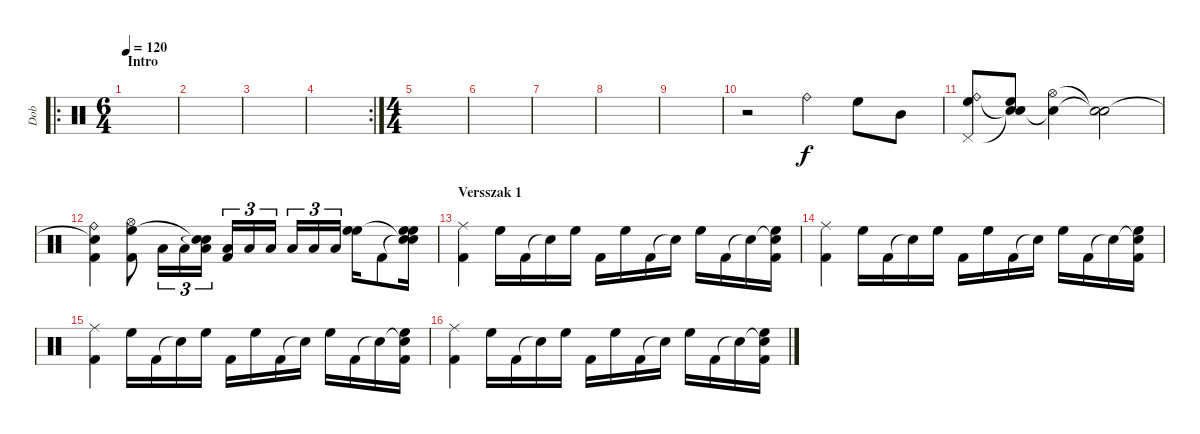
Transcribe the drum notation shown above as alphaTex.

\track ("Dob" "Dob") {instrument percussion}
\staff {score}
\articulation defaults
\ro
\ts (6 4)
\section ("" "Intro")
\tempo 120
\clef neutral
\ks c
|
|
|
\rc 2
|
\ts (4 4)
|
|
|
|
|
r.2 "Ride (bell)".4 "High Floor Tom (hit)".8 "Mid Tom (hit)".8 |
("Ride (bell)" "High Floor Tom (hit)" "Pedal Hi-Hat (hit)").8 ("Snare (hit)"{t} "High Floor Tom (hit)" "Snare (hit)"{t}).8 ("Snare (hit)"{t} "Hi-Hat (open)").4 ("Snare (hit)"{t} "Snare (hit)"{t}).2 |
("Ride (bell)" "Snare (hit)"{t} "Kick (hit) 2").4 ("Hi-Hat (open)" "High Floor Tom (hit)" "Kick (hit) 2").8 "Low Tom (hit)".16{tu (3 2)} "Low Tom (hit)".16{tu (3 2)} ("Snare (hit)"{t} "Snare (hit)"{t} "Low Tom (hit)").16{tu (3 2)} ("Low Floor Tom (hit)" "Kick (hit) 2").16{tu (3 2)} "Low Floor Tom (hit)".16{tu (3 2)} "Low Floor Tom (hit)".16{tu (3 2)} "Low Floor Tom (hit)".16{tu (3 2)} "Low Floor Tom (hit)".16{tu (3 2)} "Low Floor Tom (hit)".16{tu (3 2)} ("High Floor Tom (hit)" "High Floor Tom (hit)").16 "Kick (hit) 2".8 ("Snare (hit)"{t} "Snare (hit)"{t} "High Floor Tom (hit)" "High Floor Tom (hit)").16 |
\section ("" "Versszak 1")
("Ride (middle)" "Kick (hit) 2").4 "High Floor Tom (hit)".16 "Kick (hit) 2".16 "Snare (hit)"{t}.16 "High Floor Tom (hit)".16 "Kick (hit) 2".16 "High Floor Tom (hit)".16 "Kick (hit) 2".16 "Snare (hit)"{t}.16 "High Floor Tom (hit)".16 "Kick (hit) 2".16 "Snare (hit)"{t}.16 ("Snare (hit)"{t} "High Floor Tom (hit)" "Kick (hit) 2").16 |
("Ride (middle)" "Kick (hit) 2").4 "High Floor Tom (hit)".16 "Kick (hit) 2".16 "Snare (hit)"{t}.16 "High Floor Tom (hit)".16 "Kick (hit) 2".16 "High Floor Tom (hit)".16 "Kick (hit) 2".16 "Snare (hit)"{t}.16 "High Floor Tom (hit)".16 "Kick (hit) 2".16 "Snare (hit)"{t}.16 ("Snare (hit)"{t} "High Floor Tom (hit)" "Kick (hit) 2").16 |
("Ride (middle)" "Kick (hit) 2").4 "High Floor Tom (hit)".16 "Kick (hit) 2".16 "Snare (hit)"{t}.16 "High Floor Tom (hit)".16 "Kick (hit) 2".16 "High Floor Tom (hit)".16 "Kick (hit) 2".16 "Snare (hit)"{t}.16 "High Floor Tom (hit)".16 "Kick (hit) 2".16 "Snare (hit)"{t}.16 ("Snare (hit)"{t} "High Floor Tom (hit)" "Kick (hit) 2").16 |
("Ride (middle)" "Kick (hit) 2").4 "High Floor Tom (hit)".16 "Kick (hit) 2".16 "Snare (hit)"{t}.16 "High Floor Tom (hit)".16 "Kick (hit) 2".16 "High Floor Tom (hit)".16 "Kick (hit) 2".16 "Snare (hit)"{t}.16 "High Floor Tom (hit)".16 "Kick (hit) 2".16 "Snare (hit)"{t}.16 ("Snare (hit)"{t} "High Floor Tom (hit)" "Kick (hit) 2").16
